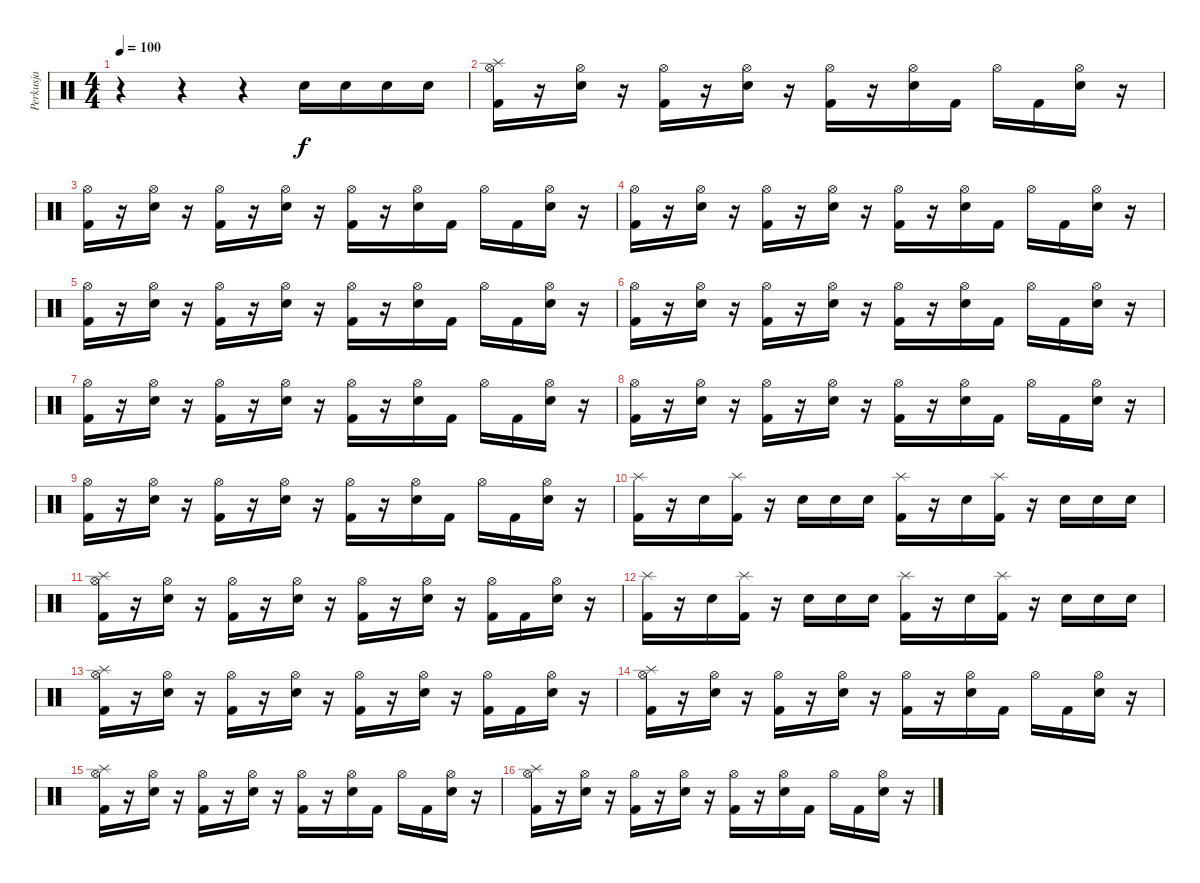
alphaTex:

\track ("Perkusja" "Perkusja") {instrument percussion}
\staff {score}
\articulation defaults
\ts (4 4)
\tempo 100
\clef neutral
\ks c
r.4{dy f} r.4 r.4 "Electric Snare (hit)".16 "Electric Snare (hit)".16 "Electric Snare (hit)".16 "Electric Snare (hit)".16 |
("Splash (hit)" "Hi-Hat (open)" "Kick (hit) 2").16 r.16 ("Hi-Hat (open)" "Electric Snare (hit)").16 r.16 ("Hi-Hat (open)" "Kick (hit) 2").16 r.16 ("Hi-Hat (open)" "Electric Snare (hit)").16 r.16 ("Hi-Hat (open)" "Kick (hit) 2").16 r.16 ("Hi-Hat (open)" "Electric Snare (hit)").16 "Kick (hit) 2".16 "Hi-Hat (open)".16 "Kick (hit) 2".16 ("Hi-Hat (open)" "Electric Snare (hit)").16 r.16 |
("Hi-Hat (open)" "Kick (hit) 2").16 r.16 ("Hi-Hat (open)" "Electric Snare (hit)").16 r.16 ("Hi-Hat (open)" "Kick (hit) 2").16 r.16 ("Hi-Hat (open)" "Electric Snare (hit)").16 r.16 ("Hi-Hat (open)" "Kick (hit) 2").16 r.16 ("Hi-Hat (open)" "Electric Snare (hit)").16 "Kick (hit) 2".16 "Hi-Hat (open)".16 "Kick (hit) 2".16 ("Hi-Hat (open)" "Electric Snare (hit)").16 r.16 |
("Hi-Hat (open)" "Kick (hit) 2").16 r.16 ("Hi-Hat (open)" "Electric Snare (hit)").16 r.16 ("Hi-Hat (open)" "Kick (hit) 2").16 r.16 ("Hi-Hat (open)" "Electric Snare (hit)").16 r.16 ("Hi-Hat (open)" "Kick (hit) 2").16 r.16 ("Hi-Hat (open)" "Electric Snare (hit)").16 "Kick (hit) 2".16 "Hi-Hat (open)".16 "Kick (hit) 2".16 ("Hi-Hat (open)" "Electric Snare (hit)").16 r.16 |
("Hi-Hat (open)" "Kick (hit) 2").16 r.16 ("Hi-Hat (open)" "Electric Snare (hit)").16 r.16 ("Hi-Hat (open)" "Kick (hit) 2").16 r.16 ("Hi-Hat (open)" "Electric Snare (hit)").16 r.16 ("Hi-Hat (open)" "Kick (hit) 2").16 r.16 ("Hi-Hat (open)" "Electric Snare (hit)").16 "Kick (hit) 2".16 "Hi-Hat (open)".16 "Kick (hit) 2".16 ("Hi-Hat (open)" "Electric Snare (hit)").16 r.16 |
("Hi-Hat (open)" "Kick (hit) 2").16 r.16 ("Hi-Hat (open)" "Electric Snare (hit)").16 r.16 ("Hi-Hat (open)" "Kick (hit) 2").16 r.16 ("Hi-Hat (open)" "Electric Snare (hit)").16 r.16 ("Hi-Hat (open)" "Kick (hit) 2").16 r.16 ("Hi-Hat (open)" "Electric Snare (hit)").16 "Kick (hit) 2".16 "Hi-Hat (open)".16 "Kick (hit) 2".16 ("Hi-Hat (open)" "Electric Snare (hit)").16 r.16 |
("Hi-Hat (open)" "Kick (hit) 2").16 r.16 ("Hi-Hat (open)" "Electric Snare (hit)").16 r.16 ("Hi-Hat (open)" "Kick (hit) 2").16 r.16 ("Hi-Hat (open)" "Electric Snare (hit)").16 r.16 ("Hi-Hat (open)" "Kick (hit) 2").16 r.16 ("Hi-Hat (open)" "Electric Snare (hit)").16 "Kick (hit) 2".16 "Hi-Hat (open)".16 "Kick (hit) 2".16 ("Hi-Hat (open)" "Electric Snare (hit)").16 r.16 |
("Hi-Hat (open)" "Kick (hit) 2").16 r.16 ("Hi-Hat (open)" "Electric Snare (hit)").16 r.16 ("Hi-Hat (open)" "Kick (hit) 2").16 r.16 ("Hi-Hat (open)" "Electric Snare (hit)").16 r.16 ("Hi-Hat (open)" "Kick (hit) 2").16 r.16 ("Hi-Hat (open)" "Electric Snare (hit)").16 "Kick (hit) 2".16 "Hi-Hat (open)".16 "Kick (hit) 2".16 ("Hi-Hat (open)" "Electric Snare (hit)").16 r.16 |
("Hi-Hat (open)" "Kick (hit) 2").16 r.16 ("Hi-Hat (open)" "Electric Snare (hit)").16 r.16 ("Hi-Hat (open)" "Kick (hit) 2").16 r.16 ("Hi-Hat (open)" "Electric Snare (hit)").16 r.16 ("Hi-Hat (open)" "Kick (hit) 2").16 r.16 ("Hi-Hat (open)" "Electric Snare (hit)").16 "Kick (hit) 2".16 "Hi-Hat (open)".16 "Kick (hit) 2".16 ("Hi-Hat (open)" "Electric Snare (hit)").16 r.16 |
("Splash (hit)" "Kick (hit) 2").16 r.16 "Electric Snare (hit)".16 ("Splash (hit)" "Kick (hit) 2").16 r.16 "Electric Snare (hit)".16 "Electric Snare (hit)".16 "Electric Snare (hit)".16 ("Splash (hit)" "Kick (hit) 2").16 r.16 "Electric Snare (hit)".16 ("Splash (hit)" "Kick (hit) 2").16 r.16 "Electric Snare (hit)".16 "Electric Snare (hit)".16 "Electric Snare (hit)".16 |
("Splash (hit)" "Hi-Hat (open)" "Kick (hit) 2").16 r.16 ("Hi-Hat (open)" "Electric Snare (hit)").16 r.16 ("Hi-Hat (open)" "Kick (hit) 2").16 r.16 ("Hi-Hat (open)" "Electric Snare (hit)").16 r.16 ("Hi-Hat (open)" "Kick (hit) 2").16 r.16 ("Hi-Hat (open)" "Electric Snare (hit)").16 r.16 ("Hi-Hat (open)" "Kick (hit) 2").16 "Kick (hit) 2".16 ("Hi-Hat (open)" "Electric Snare (hit)").16 r.16 |
("Splash (hit)" "Kick (hit) 2").16 r.16 "Electric Snare (hit)".16 ("Splash (hit)" "Kick (hit) 2").16 r.16 "Electric Snare (hit)".16 "Electric Snare (hit)".16 "Electric Snare (hit)".16 ("Splash (hit)" "Kick (hit) 2").16 r.16 "Electric Snare (hit)".16 ("Splash (hit)" "Kick (hit) 2").16 r.16 "Electric Snare (hit)".16 "Electric Snare (hit)".16 "Electric Snare (hit)".16 |
("Splash (hit)" "Hi-Hat (open)" "Kick (hit) 2").16 r.16 ("Hi-Hat (open)" "Electric Snare (hit)").16 r.16 ("Hi-Hat (open)" "Kick (hit) 2").16 r.16 ("Hi-Hat (open)" "Electric Snare (hit)").16 r.16 ("Hi-Hat (open)" "Kick (hit) 2").16 r.16 ("Hi-Hat (open)" "Electric Snare (hit)").16 r.16 ("Hi-Hat (open)" "Kick (hit) 2").16 "Kick (hit) 2".16 ("Hi-Hat (open)" "Electric Snare (hit)").16 r.16 |
("Splash (hit)" "Hi-Hat (open)" "Kick (hit) 2").16 r.16 ("Hi-Hat (open)" "Electric Snare (hit)").16 r.16 ("Hi-Hat (open)" "Kick (hit) 2").16 r.16 ("Hi-Hat (open)" "Electric Snare (hit)").16 r.16 ("Hi-Hat (open)" "Kick (hit) 2").16 r.16 ("Hi-Hat (open)" "Electric Snare (hit)").16 "Kick (hit) 2".16 "Hi-Hat (open)".16 "Kick (hit) 2".16 ("Hi-Hat (open)" "Electric Snare (hit)").16 r.16 |
("Splash (hit)" "Hi-Hat (open)" "Kick (hit) 2").16 r.16 ("Hi-Hat (open)" "Electric Snare (hit)").16 r.16 ("Hi-Hat (open)" "Kick (hit) 2").16 r.16 ("Hi-Hat (open)" "Electric Snare (hit)").16 r.16 ("Hi-Hat (open)" "Kick (hit) 2").16 r.16 ("Hi-Hat (open)" "Electric Snare (hit)").16 "Kick (hit) 2".16 "Hi-Hat (open)".16 "Kick (hit) 2".16 ("Hi-Hat (open)" "Electric Snare (hit)").16 r.16 |
("Splash (hit)" "Hi-Hat (open)" "Kick (hit) 2").16 r.16 ("Hi-Hat (open)" "Electric Snare (hit)").16 r.16 ("Hi-Hat (open)" "Kick (hit) 2").16 r.16 ("Hi-Hat (open)" "Electric Snare (hit)").16 r.16 ("Hi-Hat (open)" "Kick (hit) 2").16 r.16 ("Hi-Hat (open)" "Electric Snare (hit)").16 "Kick (hit) 2".16 "Hi-Hat (open)".16 "Kick (hit) 2".16 ("Hi-Hat (open)" "Electric Snare (hit)").16 r.16
